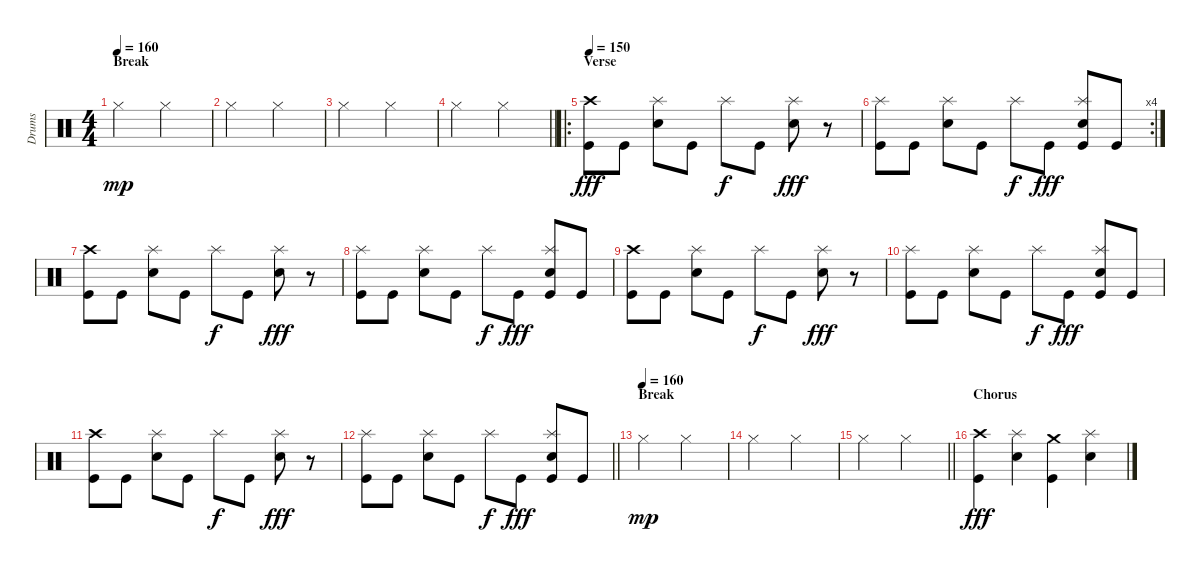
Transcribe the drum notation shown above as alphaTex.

\track ("Drums" "Drums") {instrument percussion}
\staff {score}
\articulation defaults
\ts (4 4)
\section ("" "Break")
\tempo 160
\clef neutral
\ks c "Hi-Hat (closed)".2{dy mp} "Hi-Hat (closed)".2
|
"Hi-Hat (closed)".2 "Hi-Hat (closed)".2 |
"Hi-Hat (closed)".2 "Hi-Hat (closed)".2 |
\barLineRight lightlight "Hi-Hat (closed)".2 "Hi-Hat (closed)".2
|
\ro
\section ("" "Verse")
\tempo 150
("Crash high (hit)" "Kick (hit)").8{dy fff} "Kick (hit)".8 ("Splash (hit)" "Electric Snare (hit)").8 "Kick (hit)".8 "Splash (hit)".8{dy f} "Kick (hit)".8 ("Splash (hit)" "Electric Snare (hit)").8{dy fff} r.8 |
\rc 4
("Splash (hit)" "Kick (hit)").8 "Kick (hit)".8 ("Splash (hit)" "Electric Snare (hit)").8 "Kick (hit)".8 "Splash (hit)".8{dy f} "Kick (hit)".8{dy fff} ("Splash (hit)" "Electric Snare (hit)" "Kick (hit)").8 "Kick (hit)".8 |
("Crash high (hit)" "Kick (hit)").8 "Kick (hit)".8 ("Splash (hit)" "Electric Snare (hit)").8 "Kick (hit)".8 "Splash (hit)".8{dy f} "Kick (hit)".8 ("Splash (hit)" "Electric Snare (hit)").8{dy fff} r.8 |
("Splash (hit)" "Kick (hit)").8 "Kick (hit)".8 ("Splash (hit)" "Electric Snare (hit)").8 "Kick (hit)".8 "Splash (hit)".8{dy f} "Kick (hit)".8{dy fff} ("Splash (hit)" "Electric Snare (hit)" "Kick (hit)").8 "Kick (hit)".8 |
("Crash high (hit)" "Kick (hit)").8 "Kick (hit)".8 ("Splash (hit)" "Electric Snare (hit)").8 "Kick (hit)".8 "Splash (hit)".8{dy f} "Kick (hit)".8 ("Splash (hit)" "Electric Snare (hit)").8{dy fff} r.8 |
("Splash (hit)" "Kick (hit)").8 "Kick (hit)".8 ("Splash (hit)" "Electric Snare (hit)").8 "Kick (hit)".8 "Splash (hit)".8{dy f} "Kick (hit)".8{dy fff} ("Splash (hit)" "Electric Snare (hit)" "Kick (hit)").8 "Kick (hit)".8 |
("Crash high (hit)" "Kick (hit)").8 "Kick (hit)".8 ("Splash (hit)" "Electric Snare (hit)").8 "Kick (hit)".8 "Splash (hit)".8{dy f} "Kick (hit)".8 ("Splash (hit)" "Electric Snare (hit)").8{dy fff} r.8 |
\barLineRight lightlight
("Splash (hit)" "Kick (hit)").8 "Kick (hit)".8 ("Splash (hit)" "Electric Snare (hit)").8 "Kick (hit)".8 "Splash (hit)".8{dy f} "Kick (hit)".8{dy fff} ("Splash (hit)" "Electric Snare (hit)" "Kick (hit)").8 "Kick (hit)".8 |
\section ("" "Break")
\tempo (160)
"Hi-Hat (closed)".2{dy mp} "Hi-Hat (closed)".2 |
"Hi-Hat (closed)".2 "Hi-Hat (closed)".2 |
\barLineRight lightlight "Hi-Hat (closed)".2 "Hi-Hat (closed)".2
|
\section ("" "Chorus")
("Crash high (hit)" "Kick (hit)").4{dy fff} ("Splash (hit)" "Electric Snare (hit)").4 ("Crash medium (hit)" "Kick (hit)").4 ("Splash (hit)" "Electric Snare (hit)").4
